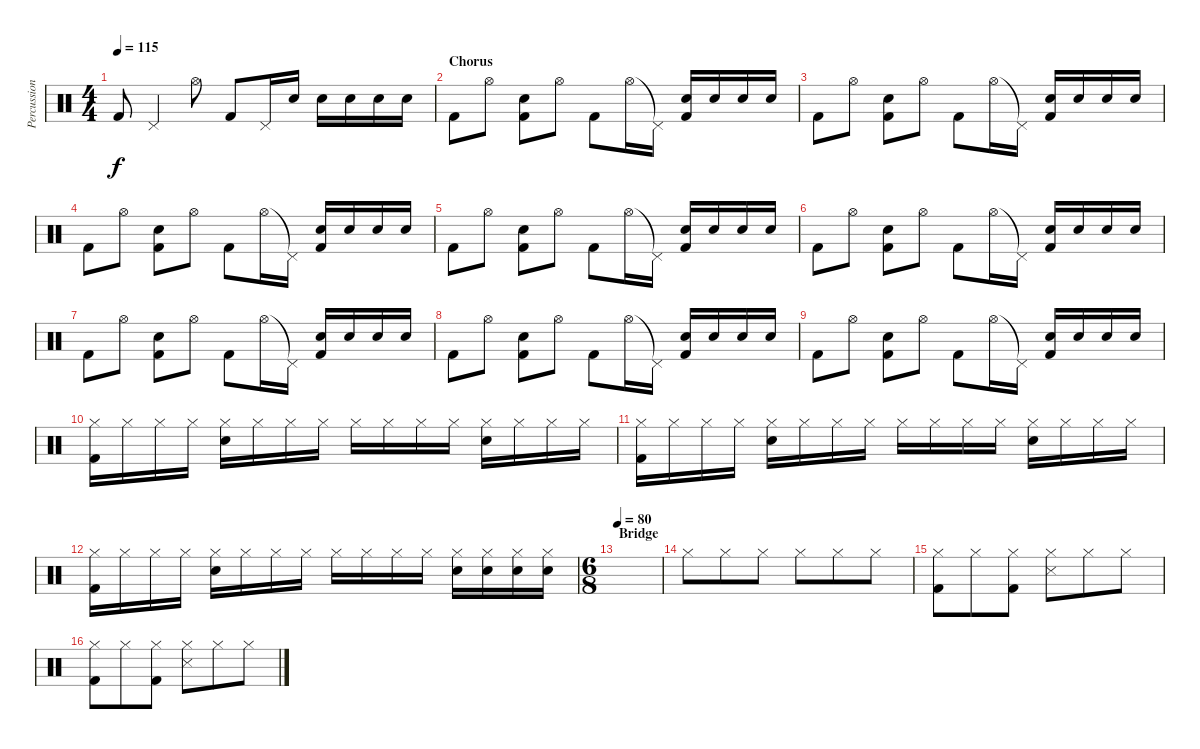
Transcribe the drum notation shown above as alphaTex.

\track ("Percussion" "Percussion") {instrument percussion}
\staff {score}
\articulation defaults
\ts (4 4)
\tempo 115
\clef neutral
\ks c "Kick (hit) 2".8{dy f} "Pedal Hi-Hat (hit)".4 "Hi-Hat (open)".8 "Kick (hit) 2".8 "Pedal Hi-Hat (hit)".16 "Snare (hit) 2".16 "Snare (hit) 2".16 "Snare (hit) 2".16 "Snare (hit) 2".16 "Snare (hit) 2".16
|
\section ("" "Chorus")
"Kick (hit) 2".8 "Hi-Hat (open)".8 ("Electric Snare (hit)" "Kick (hit) 2").8 "Hi-Hat (open)".8 "Kick (hit) 2".8 "Hi-Hat (open)".16 "Pedal Hi-Hat (hit)"{t}.16 ("Electric Snare (hit)" "Kick (hit) 2").16 "Electric Snare (hit)".16 "Electric Snare (hit)".16 "Electric Snare (hit)".16 |
"Kick (hit) 2".8 "Hi-Hat (open)".8 ("Electric Snare (hit)" "Kick (hit) 2").8 "Hi-Hat (open)".8 "Kick (hit) 2".8 "Hi-Hat (open)".16 "Pedal Hi-Hat (hit)"{t}.16 ("Electric Snare (hit)" "Kick (hit) 2").16 "Electric Snare (hit)".16 "Electric Snare (hit)".16 "Electric Snare (hit)".16 |
"Kick (hit) 2".8 "Hi-Hat (open)".8 ("Electric Snare (hit)" "Kick (hit) 2").8 "Hi-Hat (open)".8 "Kick (hit) 2".8 "Hi-Hat (open)".16 "Pedal Hi-Hat (hit)"{t}.16 ("Electric Snare (hit)" "Kick (hit) 2").16 "Electric Snare (hit)".16 "Electric Snare (hit)".16 "Electric Snare (hit)".16 |
"Kick (hit) 2".8 "Hi-Hat (open)".8 ("Electric Snare (hit)" "Kick (hit) 2").8 "Hi-Hat (open)".8 "Kick (hit) 2".8 "Hi-Hat (open)".16 "Pedal Hi-Hat (hit)"{t}.16 ("Electric Snare (hit)" "Kick (hit) 2").16 "Electric Snare (hit)".16 "Electric Snare (hit)".16 "Electric Snare (hit)".16 |
"Kick (hit) 2".8 "Hi-Hat (open)".8 ("Electric Snare (hit)" "Kick (hit) 2").8 "Hi-Hat (open)".8 "Kick (hit) 2".8 "Hi-Hat (open)".16 "Pedal Hi-Hat (hit)"{t}.16 ("Electric Snare (hit)" "Kick (hit) 2").16 "Electric Snare (hit)".16 "Electric Snare (hit)".16 "Electric Snare (hit)".16 |
"Kick (hit) 2".8 "Hi-Hat (open)".8 ("Electric Snare (hit)" "Kick (hit) 2").8 "Hi-Hat (open)".8 "Kick (hit) 2".8 "Hi-Hat (open)".16 "Pedal Hi-Hat (hit)"{t}.16 ("Electric Snare (hit)" "Kick (hit) 2").16 "Electric Snare (hit)".16 "Electric Snare (hit)".16 "Electric Snare (hit)".16 |
"Kick (hit) 2".8 "Hi-Hat (open)".8 ("Electric Snare (hit)" "Kick (hit) 2").8 "Hi-Hat (open)".8 "Kick (hit) 2".8 "Hi-Hat (open)".16 "Pedal Hi-Hat (hit)"{t}.16 ("Electric Snare (hit)" "Kick (hit) 2").16 "Electric Snare (hit)".16 "Electric Snare (hit)".16 "Electric Snare (hit)".16 |
"Kick (hit) 2".8 "Hi-Hat (open)".8 ("Electric Snare (hit)" "Kick (hit) 2").8 "Hi-Hat (open)".8 "Kick (hit) 2".8 "Hi-Hat (open)".16 "Pedal Hi-Hat (hit)"{t}.16 ("Electric Snare (hit)" "Kick (hit) 2").16 "Electric Snare (hit)".16 "Electric Snare (hit)".16 "Electric Snare (hit)".16 |
("Hi-Hat (closed)" "Kick (hit) 2").16 "Hi-Hat (closed)".16 "Hi-Hat (closed)".16 "Hi-Hat (closed)".16 ("Hi-Hat (closed)" "Snare (hit) 2").16 "Hi-Hat (closed)".16 "Hi-Hat (closed)".16 "Hi-Hat (closed)".16 "Hi-Hat (closed)".16 "Hi-Hat (closed)".16 "Hi-Hat (closed)".16 "Hi-Hat (closed)".16 ("Hi-Hat (closed)" "Snare (hit) 2").16 "Hi-Hat (closed)".16 "Hi-Hat (closed)".16 "Hi-Hat (closed)".16 |
("Hi-Hat (closed)" "Kick (hit) 2").16 "Hi-Hat (closed)".16 "Hi-Hat (closed)".16 "Hi-Hat (closed)".16 ("Hi-Hat (closed)" "Snare (hit) 2").16 "Hi-Hat (closed)".16 "Hi-Hat (closed)".16 "Hi-Hat (closed)".16 "Hi-Hat (closed)".16 "Hi-Hat (closed)".16 "Hi-Hat (closed)".16 "Hi-Hat (closed)".16 ("Hi-Hat (closed)" "Snare (hit) 2").16 "Hi-Hat (closed)".16 "Hi-Hat (closed)".16 "Hi-Hat (closed)".16 |
("Hi-Hat (closed)" "Kick (hit) 2").16 "Hi-Hat (closed)".16 "Hi-Hat (closed)".16 "Hi-Hat (closed)".16 ("Hi-Hat (closed)" "Snare (hit) 2").16 "Hi-Hat (closed)".16 "Hi-Hat (closed)".16 "Hi-Hat (closed)".16 "Hi-Hat (closed)".16 "Hi-Hat (closed)".16 "Hi-Hat (closed)".16 "Hi-Hat (closed)".16 ("Hi-Hat (closed)" "Snare (hit) 2").16 ("Hi-Hat (closed)" "Snare (hit) 2").16 ("Hi-Hat (closed)" "Snare (hit) 2").16 ("Hi-Hat (closed)" "Snare (hit) 2").16 |
\ts (6 8)
\section ("" "Bridge")
\tempo 80
|
"Hi-Hat (closed)".8 "Hi-Hat (closed)".8 "Hi-Hat (closed)".8 "Hi-Hat (closed)".8 "Hi-Hat (closed)".8 "Hi-Hat (closed)".8 |
("Hi-Hat (closed)" "Kick (hit) 2").8 "Hi-Hat (closed)".8 ("Hi-Hat (closed)" "Kick (hit) 2").8 ("Hi-Hat (closed)" "Snare (side stick) 3").8 "Hi-Hat (closed)".8 "Hi-Hat (closed)".8 |
("Hi-Hat (closed)" "Kick (hit) 2").8 "Hi-Hat (closed)".8 ("Hi-Hat (closed)" "Kick (hit) 2").8 ("Hi-Hat (closed)" "Snare (side stick) 3").8 "Hi-Hat (closed)".8 "Hi-Hat (closed)".8
